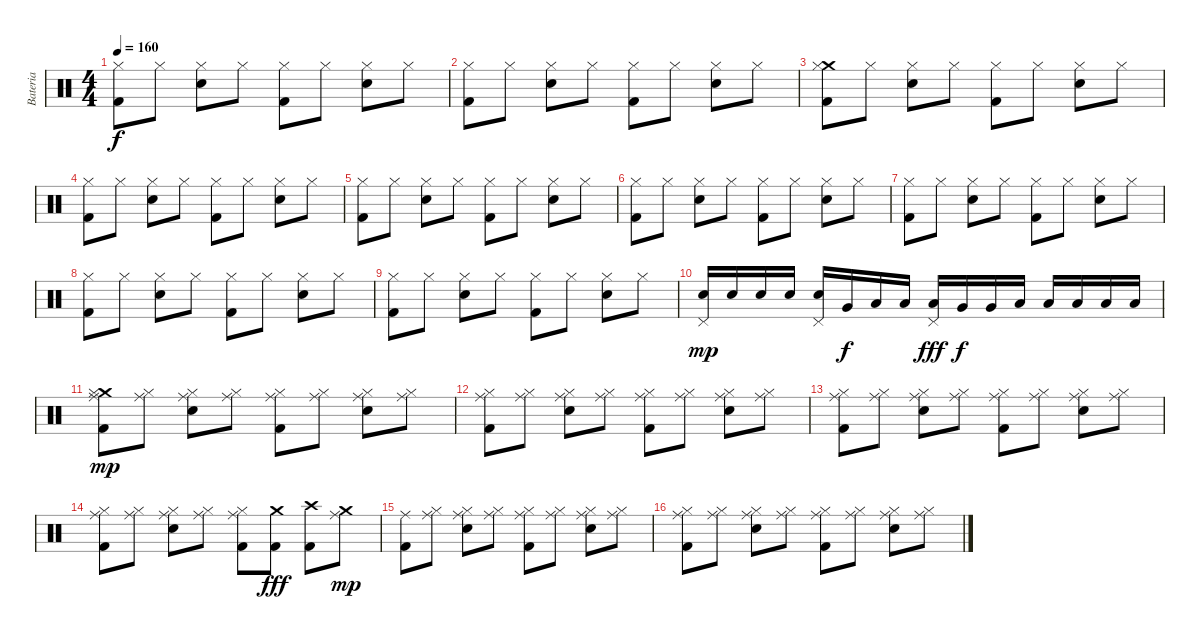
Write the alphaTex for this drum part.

\track ("Bateria" "Bateria") {instrument percussion}
\staff {score}
\articulation defaults
\ts (4 4)
\tempo 160
\clef neutral
\ks c
("Hi-Hat (closed)" "Kick (hit) 2").8{dy f} "Hi-Hat (closed)".8 ("Hi-Hat (closed)" "Electric Snare (hit)").8 "Hi-Hat (closed)".8 ("Hi-Hat (closed)" "Kick (hit) 2").8 "Hi-Hat (closed)".8 ("Hi-Hat (closed)" "Electric Snare (hit)").8 "Hi-Hat (closed)".8 |
("Hi-Hat (closed)" "Kick (hit) 2").8 "Hi-Hat (closed)".8 ("Hi-Hat (closed)" "Electric Snare (hit)").8 "Hi-Hat (closed)".8 ("Hi-Hat (closed)" "Kick (hit) 2").8 "Hi-Hat (closed)".8 ("Hi-Hat (closed)" "Electric Snare (hit)").8 "Hi-Hat (closed)".8 |
("Crash medium (hit)" "Hi-Hat (closed)" "Kick (hit) 2").8 "Hi-Hat (closed)".8 ("Hi-Hat (closed)" "Electric Snare (hit)").8 "Hi-Hat (closed)".8 ("Hi-Hat (closed)" "Kick (hit) 2").8 "Hi-Hat (closed)".8 ("Hi-Hat (closed)" "Electric Snare (hit)").8 "Hi-Hat (closed)".8 |
("Hi-Hat (closed)" "Kick (hit) 2").8 "Hi-Hat (closed)".8 ("Hi-Hat (closed)" "Electric Snare (hit)").8 "Hi-Hat (closed)".8 ("Hi-Hat (closed)" "Kick (hit) 2").8 "Hi-Hat (closed)".8 ("Hi-Hat (closed)" "Electric Snare (hit)").8 "Hi-Hat (closed)".8 |
("Hi-Hat (closed)" "Kick (hit) 2").8 "Hi-Hat (closed)".8 ("Hi-Hat (closed)" "Electric Snare (hit)").8 "Hi-Hat (closed)".8 ("Hi-Hat (closed)" "Kick (hit) 2").8 "Hi-Hat (closed)".8 ("Hi-Hat (closed)" "Electric Snare (hit)").8 "Hi-Hat (closed)".8 |
("Hi-Hat (closed)" "Kick (hit) 2").8 "Hi-Hat (closed)".8 ("Hi-Hat (closed)" "Electric Snare (hit)").8 "Hi-Hat (closed)".8 ("Hi-Hat (closed)" "Kick (hit) 2").8 "Hi-Hat (closed)".8 ("Hi-Hat (closed)" "Electric Snare (hit)").8 "Hi-Hat (closed)".8 |
("Hi-Hat (closed)" "Kick (hit) 2").8 "Hi-Hat (closed)".8 ("Hi-Hat (closed)" "Electric Snare (hit)").8 "Hi-Hat (closed)".8 ("Hi-Hat (closed)" "Kick (hit) 2").8 "Hi-Hat (closed)".8 ("Hi-Hat (closed)" "Electric Snare (hit)").8 "Hi-Hat (closed)".8 |
("Hi-Hat (closed)" "Kick (hit) 2").8 "Hi-Hat (closed)".8 ("Hi-Hat (closed)" "Electric Snare (hit)").8 "Hi-Hat (closed)".8 ("Hi-Hat (closed)" "Kick (hit) 2").8 "Hi-Hat (closed)".8 ("Hi-Hat (closed)" "Electric Snare (hit)").8 "Hi-Hat (closed)".8 |
("Hi-Hat (closed)" "Kick (hit) 2").8 "Hi-Hat (closed)".8 ("Hi-Hat (closed)" "Electric Snare (hit)").8 "Hi-Hat (closed)".8 ("Hi-Hat (closed)" "Kick (hit) 2").8 "Hi-Hat (closed)".8 ("Hi-Hat (closed)" "Electric Snare (hit)").8 "Hi-Hat (closed)".8 |
("Pedal Hi-Hat (hit)" "Electric Snare (hit)").16{dy mp} "Electric Snare (hit)".16 "Electric Snare (hit)".16 "Electric Snare (hit)".16 ("Pedal Hi-Hat (hit)" "Electric Snare (hit)").16 "Very Low Tom (hit)".16{dy f} "Low Tom (hit)".16 "Low Tom (hit)".16 ("Pedal Hi-Hat (hit)" "Low Tom (hit)").16{dy fff} "Very Low Tom (hit)".16{dy f} "Very Low Tom (hit)".16 "Low Floor Tom (hit)".16 "Low Floor Tom (hit)".16 "Low Floor Tom (hit)".16 "Low Floor Tom (hit)".16 "Low Floor Tom (hit)".16 |
("Crash medium (hit)" "Hi-Hat (closed)" "Kick (hit) 2" "Ride (middle)").8{dy mp} ("Hi-Hat (closed)" "Ride (middle)").8 ("Hi-Hat (closed)" "Electric Snare (hit)" "Ride (middle)").8 ("Hi-Hat (closed)" "Ride (middle)").8 ("Hi-Hat (closed)" "Kick (hit) 2" "Ride (middle)").8 ("Hi-Hat (closed)" "Ride (middle)").8 ("Hi-Hat (closed)" "Electric Snare (hit)" "Ride (middle)").8 ("Hi-Hat (closed)" "Ride (middle)").8 |
("Hi-Hat (closed)" "Kick (hit) 2" "Ride (middle)").8 ("Hi-Hat (closed)" "Ride (middle)").8 ("Hi-Hat (closed)" "Electric Snare (hit)" "Ride (middle)").8 ("Hi-Hat (closed)" "Ride (middle)").8 ("Hi-Hat (closed)" "Kick (hit) 2" "Ride (middle)").8 ("Hi-Hat (closed)" "Ride (middle)").8 ("Hi-Hat (closed)" "Electric Snare (hit)" "Ride (middle)").8 ("Hi-Hat (closed)" "Ride (middle)").8 |
("Hi-Hat (closed)" "Kick (hit) 2" "Ride (middle)").8 ("Hi-Hat (closed)" "Ride (middle)").8 ("Hi-Hat (closed)" "Electric Snare (hit)" "Ride (middle)").8 ("Hi-Hat (closed)" "Ride (middle)").8 ("Hi-Hat (closed)" "Kick (hit) 2" "Ride (middle)").8 ("Hi-Hat (closed)" "Ride (middle)").8 ("Hi-Hat (closed)" "Electric Snare (hit)" "Ride (middle)").8 ("Hi-Hat (closed)" "Ride (middle)").8 |
("Hi-Hat (closed)" "Kick (hit) 2" "Ride (middle)").8 ("Hi-Hat (closed)" "Ride (middle)").8 ("Hi-Hat (closed)" "Electric Snare (hit)" "Ride (middle)").8 ("Hi-Hat (closed)" "Ride (middle)").8 ("Hi-Hat (closed)" "Kick (hit) 2" "Ride (middle)").8 ("Crash medium (hit)" "Kick (hit) 2").8{dy fff} ("Crash high (hit)" "Kick (hit) 2").8 ("Crash medium (hit)" "Ride (middle)").8{dy mp} |
("Kick (hit) 2" "Ride (middle)").8 ("Hi-Hat (closed)" "Ride (middle)").8 ("Hi-Hat (closed)" "Electric Snare (hit)" "Ride (middle)").8 ("Hi-Hat (closed)" "Ride (middle)").8 ("Hi-Hat (closed)" "Kick (hit) 2" "Ride (middle)").8 ("Hi-Hat (closed)" "Ride (middle)").8 ("Hi-Hat (closed)" "Electric Snare (hit)" "Ride (middle)").8 ("Hi-Hat (closed)" "Ride (middle)").8 |
("Hi-Hat (closed)" "Kick (hit) 2" "Ride (middle)").8 ("Hi-Hat (closed)" "Ride (middle)").8 ("Hi-Hat (closed)" "Electric Snare (hit)" "Ride (middle)").8 ("Hi-Hat (closed)" "Ride (middle)").8 ("Hi-Hat (closed)" "Kick (hit) 2" "Ride (middle)").8 ("Hi-Hat (closed)" "Ride (middle)").8 ("Hi-Hat (closed)" "Electric Snare (hit)" "Ride (middle)").8 ("Hi-Hat (closed)" "Ride (middle)").8
